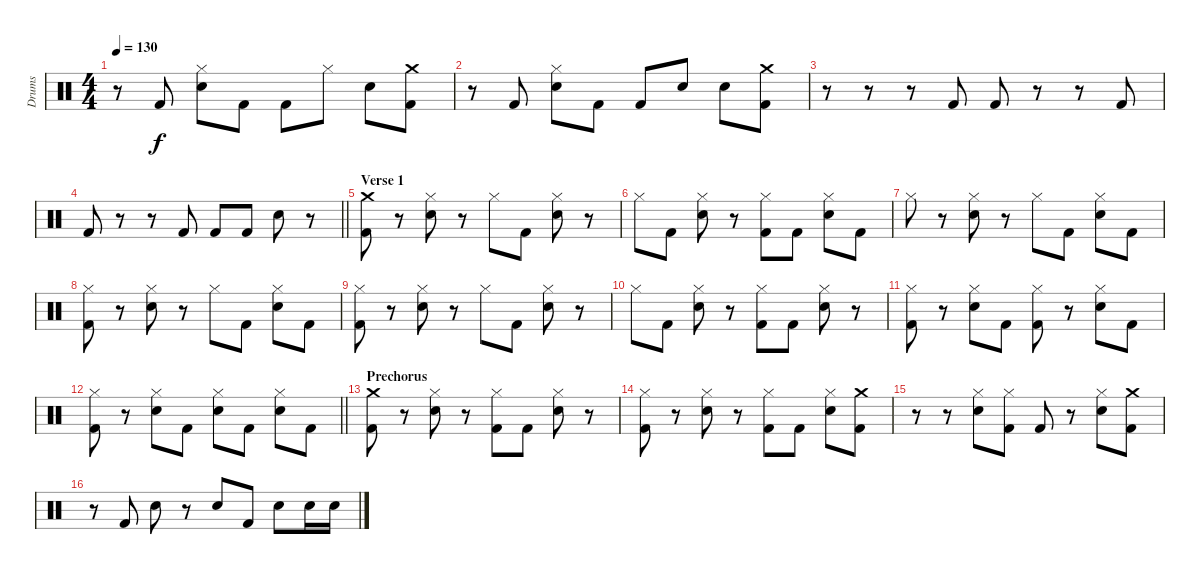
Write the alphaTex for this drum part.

\track ("Drums" "Drums") {instrument percussion}
\staff {score}
\articulation defaults
\ts (4 4)
\tempo 130
\clef neutral
\ks c
r.8{dy f} "Kick (hit) 2".8 ("Hi-Hat (closed)" "Snare (hit) 2").8 "Kick (hit) 2".8 "Kick (hit) 2".8 "Hi-Hat (closed)".8 "Snare (hit) 2".8 ("Crash medium (hit)" "Kick (hit) 2").8 |
r.8 "Kick (hit) 2".8 ("Hi-Hat (closed)" "Snare (hit) 2").8 "Kick (hit) 2".8 "Kick (hit) 2".8 "Snare (hit) 2".8 "Snare (hit) 2".8 ("Crash medium (hit)" "Kick (hit) 2").8 |
r.8 r.8 r.8 "Kick (hit) 2".8 "Kick (hit) 2".8 r.8 r.8 "Kick (hit) 2".8 |
\barLineRight lightlight "Kick (hit) 2".8
r.8 r.8 "Kick (hit) 2".8 "Kick (hit) 2".8 "Kick (hit) 2".8 "Snare (hit) 2".8 r.8 |
\section ("" "Verse 1")
("Crash medium (hit)" "Kick (hit) 2").8 r.8 ("Hi-Hat (closed)" "Snare (hit) 2").8 r.8 "Hi-Hat (closed)".8 "Kick (hit) 2".8 ("Hi-Hat (closed)" "Snare (hit) 2").8 r.8 |
"Hi-Hat (closed)".8 "Kick (hit) 2".8 ("Hi-Hat (closed)" "Snare (hit) 2").8 r.8 ("Hi-Hat (closed)" "Kick (hit) 2").8 "Kick (hit) 2".8 ("Hi-Hat (closed)" "Snare (hit) 2").8 "Kick (hit) 2".8 |
"Hi-Hat (closed)".8 r.8 ("Hi-Hat (closed)" "Snare (hit) 2").8 r.8 "Hi-Hat (closed)".8 "Kick (hit) 2".8 ("Hi-Hat (closed)" "Snare (hit) 2").8 "Kick (hit) 2".8 |
("Hi-Hat (closed)" "Kick (hit) 2").8 r.8 ("Hi-Hat (closed)" "Snare (hit) 2").8 r.8 "Hi-Hat (closed)".8 "Kick (hit) 2".8 ("Hi-Hat (closed)" "Snare (hit) 2").8 "Kick (hit) 2".8 |
("Hi-Hat (closed)" "Kick (hit) 2").8 r.8 ("Hi-Hat (closed)" "Snare (hit) 2").8 r.8 "Hi-Hat (closed)".8 "Kick (hit) 2".8 ("Hi-Hat (closed)" "Snare (hit) 2").8 r.8 |
"Hi-Hat (closed)".8 "Kick (hit) 2".8 ("Hi-Hat (closed)" "Snare (hit) 2").8 r.8 ("Hi-Hat (closed)" "Kick (hit) 2").8 "Kick (hit) 2".8 ("Hi-Hat (closed)" "Snare (hit) 2").8 r.8 |
("Hi-Hat (closed)" "Kick (hit) 2").8 r.8 ("Hi-Hat (closed)" "Snare (hit) 2").8 "Kick (hit) 2".8 ("Hi-Hat (closed)" "Kick (hit) 2").8 r.8 ("Hi-Hat (closed)" "Snare (hit) 2").8 "Kick (hit) 2".8 |
\barLineRight lightlight
("Hi-Hat (closed)" "Kick (hit) 2").8 r.8 ("Hi-Hat (closed)" "Snare (hit) 2").8 "Kick (hit) 2".8 ("Hi-Hat (closed)" "Snare (hit) 2").8 "Kick (hit) 2".8 ("Hi-Hat (closed)" "Snare (hit) 2").8 "Kick (hit) 2".8 |
\section ("" "Prechorus")
("Crash medium (hit)" "Kick (hit) 2").8 r.8 ("Hi-Hat (closed)" "Snare (hit) 2").8 r.8 ("Hi-Hat (closed)" "Kick (hit) 2").8 "Kick (hit) 2".8 ("Hi-Hat (closed)" "Snare (hit) 2").8 r.8 |
("Hi-Hat (closed)" "Kick (hit) 2").8 r.8 ("Hi-Hat (closed)" "Snare (hit) 2").8 r.8 ("Hi-Hat (closed)" "Kick (hit) 2").8 "Kick (hit) 2".8 ("Hi-Hat (closed)" "Snare (hit) 2").8 ("Crash medium (hit)" "Kick (hit) 2").8 |
r.8 r.8 ("Hi-Hat (closed)" "Snare (hit) 2").8 ("Hi-Hat (closed)" "Kick (hit) 2").8 "Kick (hit) 2".8 r.8 ("Hi-Hat (closed)" "Snare (hit) 2").8 ("Crash medium (hit)" "Kick (hit) 2").8 |
r.8 "Kick (hit) 2".8 "Snare (hit) 2".8 r.8 "Snare (hit) 2".8 "Kick (hit) 2".8 "Snare (hit) 2".8 "Snare (hit) 2".16 "Snare (hit) 2".16
